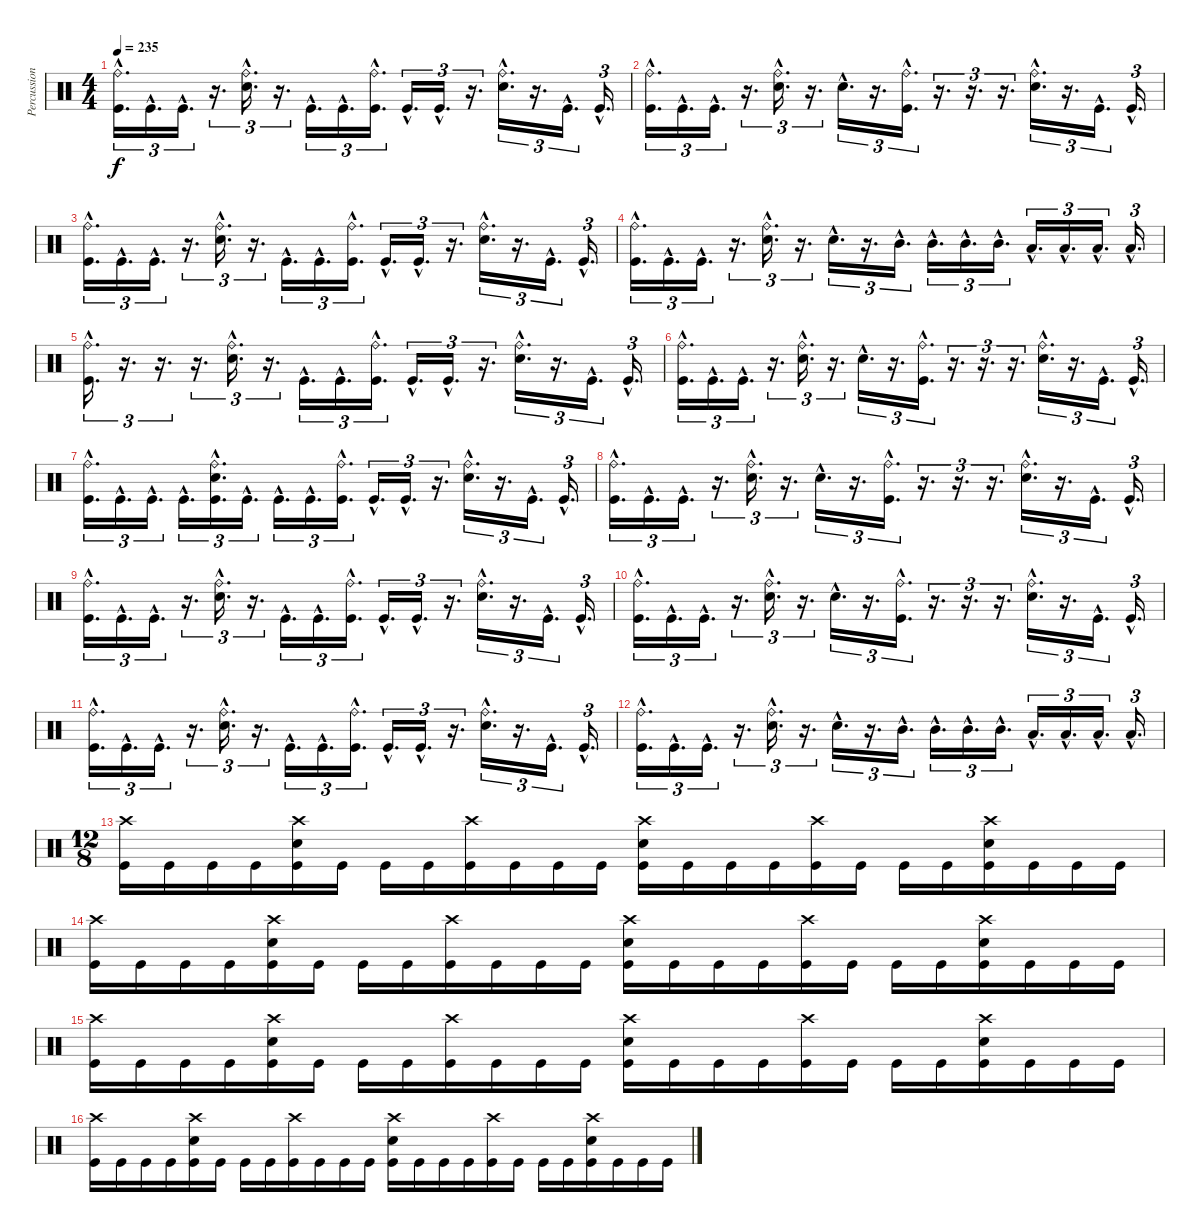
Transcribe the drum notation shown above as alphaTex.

\track ("Percussion" "Percussion") {instrument percussion}
\staff {score}
\articulation defaults
\ts (4 4)
\tempo 235
\clef neutral
\ks c
("Ride (bell)"{hac} "Kick (hit)"{hac}).16{d tu (3 2) dy f} "Kick (hit)"{hac}.16{d tu (3 2)} "Kick (hit)"{hac}.16{d tu (3 2)} r.16{d tu (3 2)} ("Ride (bell)"{hac} "Snare (hit) 2"{hac}).16{d tu (3 2)} r.16{d tu (3 2)} "Kick (hit)"{hac}.16{d tu (3 2)} "Kick (hit)"{hac}.16{d tu (3 2)} ("Ride (bell)"{hac} "Kick (hit)"{hac}).16{d tu (3 2)} "Kick (hit)"{hac}.16{d tu (3 2)} "Kick (hit)"{hac}.16{d tu (3 2)} r.16{d tu (3 2)} ("Ride (bell)"{hac} "Snare (hit) 2"{hac}).16{d tu (3 2)} r.16{d tu (3 2)} "Kick (hit)"{hac}.16{d tu (3 2)} "Kick (hit)"{hac}.16{d tu (3 2)} |
("Ride (bell)"{hac} "Kick (hit)"{hac}).16{d tu (3 2)} "Kick (hit)"{hac}.16{d tu (3 2)} "Kick (hit)"{hac}.16{d tu (3 2)} r.16{d tu (3 2)} ("Ride (bell)"{hac} "Snare (hit) 2"{hac}).16{d tu (3 2)} r.16{d tu (3 2)} "Snare (hit) 2"{hac}.16{d tu (3 2)} r.16{d tu (3 2)} ("Ride (bell)"{hac} "Kick (hit)"{hac}).16{d tu (3 2)} r.16{d tu (3 2)} r.16{d tu (3 2)} r.16{d tu (3 2)} ("Ride (bell)"{hac} "Snare (hit) 2"{hac}).16{d tu (3 2)} r.16{d tu (3 2)} "Kick (hit)"{hac}.16{d tu (3 2)} "Kick (hit)"{hac}.16{d tu (3 2)} |
("Ride (bell)"{hac} "Kick (hit)"{hac}).16{d tu (3 2)} "Kick (hit)"{hac}.16{d tu (3 2)} "Kick (hit)"{hac}.16{d tu (3 2)} r.16{d tu (3 2)} ("Ride (bell)"{hac} "Snare (hit) 2"{hac}).16{d tu (3 2)} r.16{d tu (3 2)} "Kick (hit)"{hac}.16{d tu (3 2)} "Kick (hit)"{hac}.16{d tu (3 2)} ("Ride (bell)"{hac} "Kick (hit)"{hac}).16{d tu (3 2)} "Kick (hit)"{hac}.16{d tu (3 2)} "Kick (hit)"{hac}.16{d tu (3 2)} r.16{d tu (3 2)} ("Ride (bell)"{hac} "Snare (hit) 2"{hac}).16{d tu (3 2)} r.16{d tu (3 2)} "Kick (hit)"{hac}.16{d tu (3 2)} "Kick (hit)"{hac}.16{d tu (3 2)} |
("Ride (bell)"{hac} "Kick (hit)"{hac}).16{d tu (3 2)} "Kick (hit)"{hac}.16{d tu (3 2)} "Kick (hit)"{hac}.16{d tu (3 2)} r.16{d tu (3 2)} ("Ride (bell)"{hac} "Snare (hit) 2"{hac}).16{d tu (3 2)} r.16{d tu (3 2)} "Snare (hit) 2"{hac}.16{d tu (3 2)} r.16{d tu (3 2)} "Mid Tom (hit)"{hac}.16{d tu (3 2)} "Mid Tom (hit)"{hac}.16{d tu (3 2)} "Mid Tom (hit)"{hac}.16{d tu (3 2)} "Mid Tom (hit)"{hac}.16{d tu (3 2)} "Low Tom (hit)"{hac}.16{d tu (3 2)} "Low Tom (hit)"{hac}.16{d tu (3 2)} "Low Tom (hit)"{hac}.16{d tu (3 2)} "Low Tom (hit)"{hac}.16{d tu (3 2)} |
("Ride (bell)"{hac} "Kick (hit)"{hac}).16{d tu (3 2)} r.16{d tu (3 2)} r.16{d tu (3 2)} r.16{d tu (3 2)} ("Ride (bell)"{hac} "Snare (hit) 2"{hac}).16{d tu (3 2)} r.16{d tu (3 2)} "Kick (hit)"{hac}.16{d tu (3 2)} "Kick (hit)"{hac}.16{d tu (3 2)} ("Ride (bell)"{hac} "Kick (hit)"{hac}).16{d tu (3 2)} "Kick (hit)"{hac}.16{d tu (3 2)} "Kick (hit)"{hac}.16{d tu (3 2)} r.16{d tu (3 2)} ("Ride (bell)"{hac} "Snare (hit) 2"{hac}).16{d tu (3 2)} r.16{d tu (3 2)} "Kick (hit)"{hac}.16{d tu (3 2)} "Kick (hit)"{hac}.16{d tu (3 2)} |
("Ride (bell)"{hac} "Kick (hit)"{hac}).16{d tu (3 2)} "Kick (hit)"{hac}.16{d tu (3 2)} "Kick (hit)"{hac}.16{d tu (3 2)} r.16{d tu (3 2)} ("Ride (bell)"{hac} "Snare (hit) 2"{hac}).16{d tu (3 2)} r.16{d tu (3 2)} "Snare (hit) 2"{hac}.16{d tu (3 2)} r.16{d tu (3 2)} ("Ride (bell)"{hac} "Kick (hit)"{hac}).16{d tu (3 2)} r.16{d tu (3 2)} r.16{d tu (3 2)} r.16{d tu (3 2)} ("Ride (bell)"{hac} "Snare (hit) 2"{hac}).16{d tu (3 2)} r.16{d tu (3 2)} "Kick (hit)"{hac}.16{d tu (3 2)} "Kick (hit)"{hac}.16{d tu (3 2)} |
("Ride (bell)"{hac} "Kick (hit)"{hac}).16{d tu (3 2)} "Kick (hit)"{hac}.16{d tu (3 2)} "Kick (hit)"{hac}.16{d tu (3 2)} "Kick (hit)"{hac}.16{d tu (3 2)} ("Ride (bell)"{hac} "Snare (hit) 2"{hac} "Kick (hit)"{hac}).16{d tu (3 2)} "Kick (hit)"{hac}.16{d tu (3 2)} "Kick (hit)"{hac}.16{d tu (3 2)} "Kick (hit)"{hac}.16{d tu (3 2)} ("Ride (bell)"{hac} "Kick (hit)"{hac}).16{d tu (3 2)} "Kick (hit)"{hac}.16{d tu (3 2)} "Kick (hit)"{hac}.16{d tu (3 2)} r.16{d tu (3 2)} ("Ride (bell)"{hac} "Snare (hit) 2"{hac}).16{d tu (3 2)} r.16{d tu (3 2)} "Kick (hit)"{hac}.16{d tu (3 2)} "Kick (hit)"{hac}.16{d tu (3 2)} |
("Ride (bell)"{hac} "Kick (hit)"{hac}).16{d tu (3 2)} "Kick (hit)"{hac}.16{d tu (3 2)} "Kick (hit)"{hac}.16{d tu (3 2)} r.16{d tu (3 2)} ("Ride (bell)"{hac} "Snare (hit) 2"{hac}).16{d tu (3 2)} r.16{d tu (3 2)} "Snare (hit) 2"{hac}.16{d tu (3 2)} r.16{d tu (3 2)} ("Ride (bell)"{hac} "Kick (hit)"{hac}).16{d tu (3 2)} r.16{d tu (3 2)} r.16{d tu (3 2)} r.16{d tu (3 2)} ("Ride (bell)"{hac} "Snare (hit) 2"{hac}).16{d tu (3 2)} r.16{d tu (3 2)} "Kick (hit)"{hac}.16{d tu (3 2)} "Kick (hit)"{hac}.16{d tu (3 2)} |
("Ride (bell)"{hac} "Kick (hit)"{hac}).16{d tu (3 2)} "Kick (hit)"{hac}.16{d tu (3 2)} "Kick (hit)"{hac}.16{d tu (3 2)} r.16{d tu (3 2)} ("Ride (bell)"{hac} "Snare (hit) 2"{hac}).16{d tu (3 2)} r.16{d tu (3 2)} "Kick (hit)"{hac}.16{d tu (3 2)} "Kick (hit)"{hac}.16{d tu (3 2)} ("Ride (bell)"{hac} "Kick (hit)"{hac}).16{d tu (3 2)} "Kick (hit)"{hac}.16{d tu (3 2)} "Kick (hit)"{hac}.16{d tu (3 2)} r.16{d tu (3 2)} ("Ride (bell)"{hac} "Snare (hit) 2"{hac}).16{d tu (3 2)} r.16{d tu (3 2)} "Kick (hit)"{hac}.16{d tu (3 2)} "Kick (hit)"{hac}.16{d tu (3 2)} |
("Ride (bell)"{hac} "Kick (hit)"{hac}).16{d tu (3 2)} "Kick (hit)"{hac}.16{d tu (3 2)} "Kick (hit)"{hac}.16{d tu (3 2)} r.16{d tu (3 2)} ("Ride (bell)"{hac} "Snare (hit) 2"{hac}).16{d tu (3 2)} r.16{d tu (3 2)} "Snare (hit) 2"{hac}.16{d tu (3 2)} r.16{d tu (3 2)} ("Ride (bell)"{hac} "Kick (hit)"{hac}).16{d tu (3 2)} r.16{d tu (3 2)} r.16{d tu (3 2)} r.16{d tu (3 2)} ("Ride (bell)"{hac} "Snare (hit) 2"{hac}).16{d tu (3 2)} r.16{d tu (3 2)} "Kick (hit)"{hac}.16{d tu (3 2)} "Kick (hit)"{hac}.16{d tu (3 2)} |
("Ride (bell)"{hac} "Kick (hit)"{hac}).16{d tu (3 2)} "Kick (hit)"{hac}.16{d tu (3 2)} "Kick (hit)"{hac}.16{d tu (3 2)} r.16{d tu (3 2)} ("Ride (bell)"{hac} "Snare (hit) 2"{hac}).16{d tu (3 2)} r.16{d tu (3 2)} "Kick (hit)"{hac}.16{d tu (3 2)} "Kick (hit)"{hac}.16{d tu (3 2)} ("Ride (bell)"{hac} "Kick (hit)"{hac}).16{d tu (3 2)} "Kick (hit)"{hac}.16{d tu (3 2)} "Kick (hit)"{hac}.16{d tu (3 2)} r.16{d tu (3 2)} ("Ride (bell)"{hac} "Snare (hit) 2"{hac}).16{d tu (3 2)} r.16{d tu (3 2)} "Kick (hit)"{hac}.16{d tu (3 2)} "Kick (hit)"{hac}.16{d tu (3 2)} |
("Ride (bell)"{hac} "Kick (hit)"{hac}).16{d tu (3 2)} "Kick (hit)"{hac}.16{d tu (3 2)} "Kick (hit)"{hac}.16{d tu (3 2)} r.16{d tu (3 2)} ("Ride (bell)"{hac} "Snare (hit) 2"{hac}).16{d tu (3 2)} r.16{d tu (3 2)} "Snare (hit) 2"{hac}.16{d tu (3 2)} r.16{d tu (3 2)} "Mid Tom (hit)"{hac}.16{d tu (3 2)} "Mid Tom (hit)"{hac}.16{d tu (3 2)} "Mid Tom (hit)"{hac}.16{d tu (3 2)} "Mid Tom (hit)"{hac}.16{d tu (3 2)} "Low Tom (hit)"{hac}.16{d tu (3 2)} "Low Tom (hit)"{hac}.16{d tu (3 2)} "Low Tom (hit)"{hac}.16{d tu (3 2)} "Low Tom (hit)"{hac}.16{d tu (3 2)} |
\ts (12 8)
("Crash high (hit)" "Kick (hit)").16 "Kick (hit)".16 "Kick (hit)".16 "Kick (hit)".16 ("Crash high (hit)" "Snare (hit) 2" "Kick (hit)").16 "Kick (hit)".16 "Kick (hit)".16 "Kick (hit)".16 ("Crash high (hit)" "Kick (hit)").16 "Kick (hit)".16 "Kick (hit)".16 "Kick (hit)".16 ("Crash high (hit)" "Snare (hit) 2" "Kick (hit)").16 "Kick (hit)".16 "Kick (hit)".16 "Kick (hit)".16 ("Crash high (hit)" "Kick (hit)").16 "Kick (hit)".16 "Kick (hit)".16 "Kick (hit)".16 ("Crash high (hit)" "Snare (hit) 2" "Kick (hit)").16 "Kick (hit)".16 "Kick (hit)".16 "Kick (hit)".16 |
("Crash high (hit)" "Kick (hit)").16 "Kick (hit)".16 "Kick (hit)".16 "Kick (hit)".16 ("Crash high (hit)" "Snare (hit) 2" "Kick (hit)").16 "Kick (hit)".16 "Kick (hit)".16 "Kick (hit)".16 ("Crash high (hit)" "Kick (hit)").16 "Kick (hit)".16 "Kick (hit)".16 "Kick (hit)".16 ("Crash high (hit)" "Snare (hit) 2" "Kick (hit)").16 "Kick (hit)".16 "Kick (hit)".16 "Kick (hit)".16 ("Crash high (hit)" "Kick (hit)").16 "Kick (hit)".16 "Kick (hit)".16 "Kick (hit)".16 ("Crash high (hit)" "Snare (hit) 2" "Kick (hit)").16 "Kick (hit)".16 "Kick (hit)".16 "Kick (hit)".16 |
("Crash high (hit)" "Kick (hit)").16 "Kick (hit)".16 "Kick (hit)".16 "Kick (hit)".16 ("Crash high (hit)" "Snare (hit) 2" "Kick (hit)").16 "Kick (hit)".16 "Kick (hit)".16 "Kick (hit)".16 ("Crash high (hit)" "Kick (hit)").16 "Kick (hit)".16 "Kick (hit)".16 "Kick (hit)".16 ("Crash high (hit)" "Snare (hit) 2" "Kick (hit)").16 "Kick (hit)".16 "Kick (hit)".16 "Kick (hit)".16 ("Crash high (hit)" "Kick (hit)").16 "Kick (hit)".16 "Kick (hit)".16 "Kick (hit)".16 ("Crash high (hit)" "Snare (hit) 2" "Kick (hit)").16 "Kick (hit)".16 "Kick (hit)".16 "Kick (hit)".16 |
("Crash high (hit)" "Kick (hit)").16 "Kick (hit)".16 "Kick (hit)".16 "Kick (hit)".16 ("Crash high (hit)" "Snare (hit) 2" "Kick (hit)").16 "Kick (hit)".16 "Kick (hit)".16 "Kick (hit)".16 ("Crash high (hit)" "Kick (hit)").16 "Kick (hit)".16 "Kick (hit)".16 "Kick (hit)".16 ("Crash high (hit)" "Snare (hit) 2" "Kick (hit)").16 "Kick (hit)".16 "Kick (hit)".16 "Kick (hit)".16 ("Crash high (hit)" "Kick (hit)").16 "Kick (hit)".16 "Kick (hit)".16 "Kick (hit)".16 ("Crash high (hit)" "Snare (hit) 2" "Kick (hit)").16 "Kick (hit)".16 "Kick (hit)".16 "Kick (hit)".16
